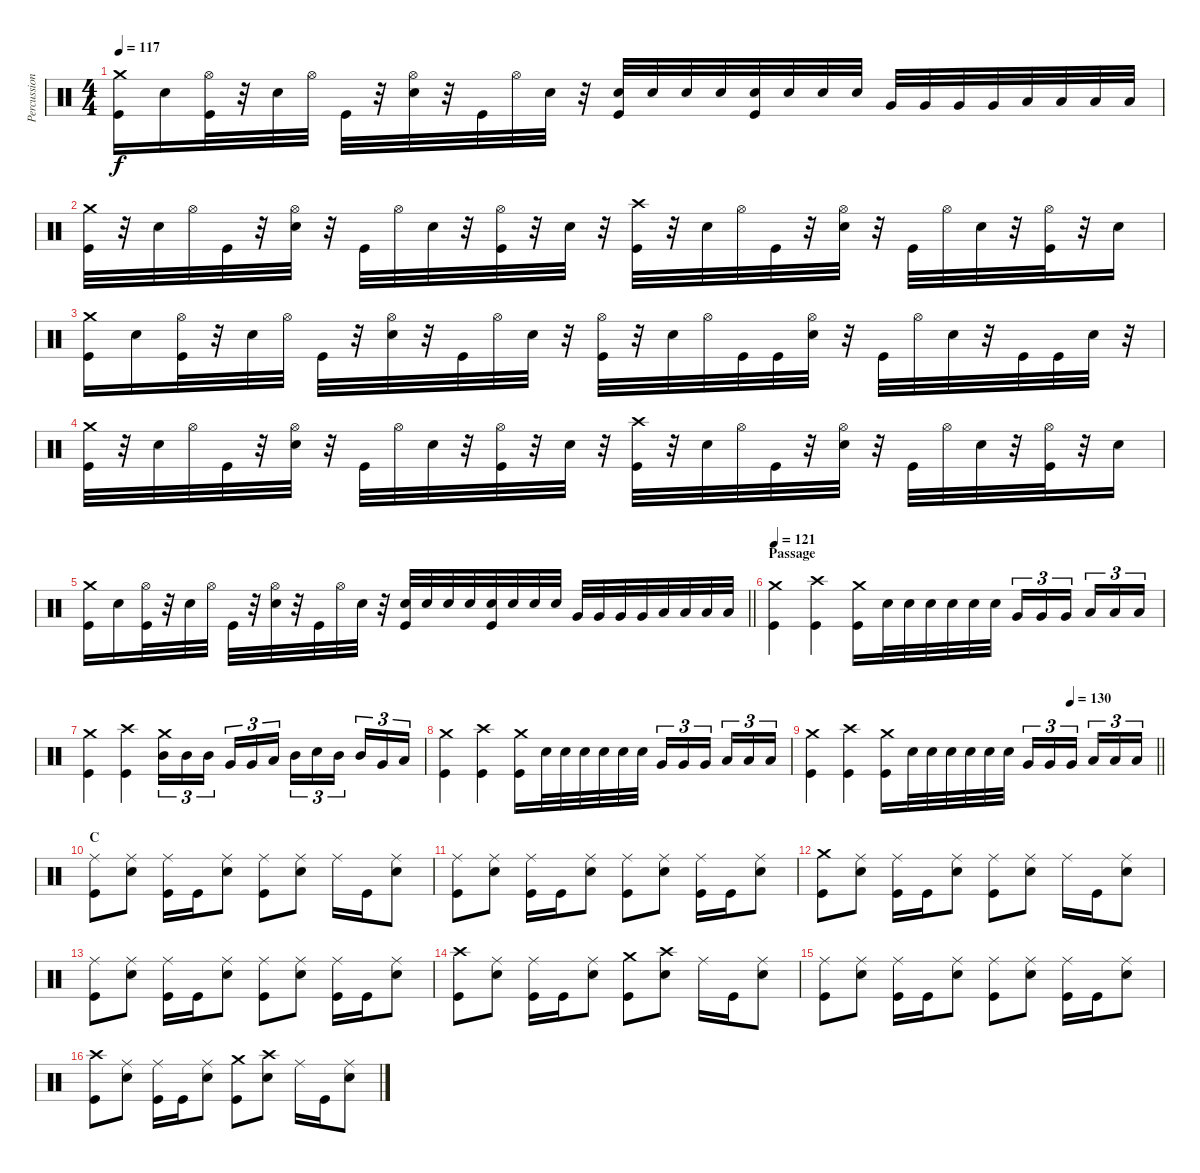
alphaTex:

\track ("Percussion" "Percussion") {instrument percussion}
\staff {score}
\articulation defaults
\ts (4 4)
\tempo 117
\clef neutral
\ks c
("Kick (hit)" "Crash medium (hit)").16{dy f} "Snare (hit) 2".16 ("Kick (hit)" "Hi-Hat (open)").32 r.32 "Snare (hit) 2".32 "Hi-Hat (open)".32 "Kick (hit)".32 r.32 ("Snare (hit) 2" "Hi-Hat (open)").32 r.32 "Kick (hit)".32 "Hi-Hat (open)".32 "Snare (hit) 2".32 r.32 ("Kick (hit)" "Snare (hit) 2").32 "Snare (hit) 2".32 "Snare (hit) 2".32 "Snare (hit) 2".32 ("Kick (hit)" "Snare (hit) 2").32 "Snare (hit) 2".32 "Snare (hit) 2".32 "Snare (hit) 2".32 "Very Low Tom (hit)".32 "Very Low Tom (hit)".32 "Very Low Tom (hit)".32 "Very Low Tom (hit)".32 "Low Floor Tom (hit)".32 "Low Floor Tom (hit)".32 "Low Floor Tom (hit)".32 "Low Floor Tom (hit)".32 |
("Kick (hit)" "Crash medium (hit)").32 r.32 "Snare (hit) 2".32 "Hi-Hat (open)".32 "Kick (hit)".32 r.32 ("Snare (hit) 2" "Hi-Hat (open)").32 r.32 "Kick (hit)".32 "Hi-Hat (open)".32 "Snare (hit) 2".32 r.32 ("Kick (hit)" "Hi-Hat (open)").32 r.32 "Snare (hit) 2".32 r.32 ("Kick (hit)" "Crash high (hit)").32 r.32 "Snare (hit) 2".32 "Hi-Hat (open)".32 "Kick (hit)".32 r.32 ("Snare (hit) 2" "Hi-Hat (open)").32 r.32 "Kick (hit)".32 "Hi-Hat (open)".32 "Snare (hit) 2".32 r.32 ("Kick (hit)" "Hi-Hat (open)").32 r.32 "Snare (hit) 2".16 |
("Kick (hit)" "Crash medium (hit)").16 "Snare (hit) 2".16 ("Kick (hit)" "Hi-Hat (open)").32 r.32 "Snare (hit) 2".32 "Hi-Hat (open)".32 "Kick (hit)".32 r.32 ("Snare (hit) 2" "Hi-Hat (open)").32 r.32 "Kick (hit)".32 "Hi-Hat (open)".32 "Snare (hit) 2".32 r.32 ("Kick (hit)" "Hi-Hat (open)").32 r.32 "Snare (hit) 2".32 "Hi-Hat (open)".32 "Kick (hit)".32 "Kick (hit)".32 ("Snare (hit) 2" "Hi-Hat (open)").32 r.32 "Kick (hit)".32 "Hi-Hat (open)".32 "Snare (hit) 2".32 r.32 "Kick (hit)".32 "Kick (hit)".32 "Snare (hit) 2".32 r.32 |
("Kick (hit)" "Crash medium (hit)").32 r.32 "Snare (hit) 2".32 "Hi-Hat (open)".32 "Kick (hit)".32 r.32 ("Snare (hit) 2" "Hi-Hat (open)").32 r.32 "Kick (hit)".32 "Hi-Hat (open)".32 "Snare (hit) 2".32 r.32 ("Kick (hit)" "Hi-Hat (open)").32 r.32 "Snare (hit) 2".32 r.32 ("Kick (hit)" "Crash high (hit)").32 r.32 "Snare (hit) 2".32 "Hi-Hat (open)".32 "Kick (hit)".32 r.32 ("Snare (hit) 2" "Hi-Hat (open)").32 r.32 "Kick (hit)".32 "Hi-Hat (open)".32 "Snare (hit) 2".32 r.32 ("Kick (hit)" "Hi-Hat (open)").32 r.32 "Snare (hit) 2".16 |
\barLineRight lightlight
("Kick (hit)" "Crash medium (hit)").16 "Snare (hit) 2".16 ("Kick (hit)" "Hi-Hat (open)").32 r.32 "Snare (hit) 2".32 "Hi-Hat (open)".32 "Kick (hit)".32 r.32 ("Snare (hit) 2" "Hi-Hat (open)").32 r.32 "Kick (hit)".32 "Hi-Hat (open)".32 "Snare (hit) 2".32 r.32 ("Kick (hit)" "Snare (hit) 2").32 "Snare (hit) 2".32 "Snare (hit) 2".32 "Snare (hit) 2".32 ("Kick (hit)" "Snare (hit) 2").32 "Snare (hit) 2".32 "Snare (hit) 2".32 "Snare (hit) 2".32 "Very Low Tom (hit)".32 "Very Low Tom (hit)".32 "Very Low Tom (hit)".32 "Very Low Tom (hit)".32 "Low Floor Tom (hit)".32 "Low Floor Tom (hit)".32 "Low Floor Tom (hit)".32 "Low Floor Tom (hit)".32 |
\section ("" "Passage")
\tempo 121
("Kick (hit)" "Crash medium (hit)").4 ("Kick (hit)" "Crash high (hit)").4 ("Kick (hit)" "Crash medium (hit)").16 "Snare (hit) 2".32 "Snare (hit) 2".32 "Snare (hit) 2".32 "Snare (hit) 2".32 "Snare (hit) 2".32 "Snare (hit) 2".32 "Very Low Tom (hit)".16{tu (3 2)} "Very Low Tom (hit)".16{tu (3 2)} "Very Low Tom (hit)".16{tu (3 2)} "Low Floor Tom (hit)".16{tu (3 2)} "Low Floor Tom (hit)".16{tu (3 2)} "Low Floor Tom (hit)".16{tu (3 2)} |
("Kick (hit)" "Crash medium (hit)").4 ("Kick (hit)" "Crash high (hit)").4 ("Mid Tom (hit)" "Crash medium (hit)").16{tu (3 2)} "Mid Tom (hit)".16{tu (3 2)} "Mid Tom (hit)".16{tu (3 2)} "Very Low Tom (hit)".16{tu (3 2)} "Very Low Tom (hit)".16{tu (3 2)} "Low Floor Tom (hit)".16{tu (3 2)} "Mid Tom (hit)".16{tu (3 2)} "Snare (hit) 2".16{tu (3 2)} "Mid Tom (hit)".16{tu (3 2)} "Mid Tom (hit)".16{tu (3 2)} "Very Low Tom (hit)".16{tu (3 2)} "Low Floor Tom (hit)".16{tu (3 2)} |
("Kick (hit)" "Crash medium (hit)").4 ("Kick (hit)" "Crash high (hit)").4 ("Kick (hit)" "Crash medium (hit)").16 "Snare (hit) 2".32 "Snare (hit) 2".32 "Snare (hit) 2".32 "Snare (hit) 2".32 "Snare (hit) 2".32 "Snare (hit) 2".32 "Very Low Tom (hit)".16{tu (3 2)} "Very Low Tom (hit)".16{tu (3 2)} "Very Low Tom (hit)".16{tu (3 2)} "Low Floor Tom (hit)".16{tu (3 2)} "Low Floor Tom (hit)".16{tu (3 2)} "Low Floor Tom (hit)".16{tu (3 2)} |
\tempo (130 0.75)
\barLineRight lightlight
("Kick (hit)" "Crash medium (hit)").4 ("Kick (hit)" "Crash high (hit)").4 ("Kick (hit)" "Crash medium (hit)").16 "Snare (hit) 2".32 "Snare (hit) 2".32 "Snare (hit) 2".32 "Snare (hit) 2".32 "Snare (hit) 2".32 "Snare (hit) 2".32 "Very Low Tom (hit)".16{tu (3 2)} "Very Low Tom (hit)".16{tu (3 2)} "Very Low Tom (hit)".16{tu (3 2)} "Low Floor Tom (hit)".16{tu (3 2)} "Low Floor Tom (hit)".16{tu (3 2)} "Low Floor Tom (hit)".16{tu (3 2)} |
\section ("" "C")
("Kick (hit)" "Ride (middle)").8 ("Snare (hit) 2" "Ride (middle)").8 ("Kick (hit)" "Ride (middle)").16 "Kick (hit)".16 ("Snare (hit) 2" "Ride (middle)").8 ("Kick (hit)" "Ride (middle)").8 ("Snare (hit) 2" "Ride (middle)").8 "Ride (middle)".16 "Kick (hit)".16 ("Snare (hit) 2" "Ride (middle)").8 |
("Kick (hit)" "Ride (middle)").8 ("Snare (hit) 2" "Ride (middle)").8 ("Kick (hit)" "Ride (middle)").16 "Kick (hit)".16 ("Snare (hit) 2" "Ride (middle)").8 ("Kick (hit)" "Ride (middle)").8 ("Snare (hit) 2" "Ride (middle)").8 ("Kick (hit)" "Ride (middle)").16 "Kick (hit)".16 ("Snare (hit) 2" "Ride (middle)").8 |
("Kick (hit)" "Crash medium (hit)").8 ("Snare (hit) 2" "Ride (middle)").8 ("Kick (hit)" "Ride (middle)").16 "Kick (hit)".16 ("Snare (hit) 2" "Ride (middle)").8 ("Kick (hit)" "Ride (middle)").8 ("Snare (hit) 2" "Ride (middle)").8 "Ride (middle)".16 "Kick (hit)".16 ("Snare (hit) 2" "Ride (middle)").8 |
("Kick (hit)" "Ride (middle)").8 ("Snare (hit) 2" "Ride (middle)").8 ("Kick (hit)" "Ride (middle)").16 "Kick (hit)".16 ("Snare (hit) 2" "Ride (middle)").8 ("Kick (hit)" "Ride (middle)").8 ("Snare (hit) 2" "Ride (middle)").8 ("Kick (hit)" "Ride (middle)").16 "Kick (hit)".16 ("Snare (hit) 2" "Ride (middle)").8 |
("Kick (hit)" "Crash high (hit)").8 ("Snare (hit) 2" "Ride (middle)").8 ("Kick (hit)" "Ride (middle)").16 "Kick (hit)".16 ("Snare (hit) 2" "Ride (middle)").8 ("Kick (hit)" "Crash medium (hit)").8 ("Snare (hit) 2" "Crash high (hit)").8 "Ride (middle)".16 "Kick (hit)".16 ("Snare (hit) 2" "Ride (middle)").8 |
("Kick (hit)" "Ride (middle)").8 ("Snare (hit) 2" "Ride (middle)").8 ("Kick (hit)" "Ride (middle)").16 "Kick (hit)".16 ("Snare (hit) 2" "Ride (middle)").8 ("Kick (hit)" "Ride (middle)").8 ("Snare (hit) 2" "Ride (middle)").8 ("Kick (hit)" "Ride (middle)").16 "Kick (hit)".16 ("Snare (hit) 2" "Ride (middle)").8 |
("Kick (hit)" "Crash high (hit)").8 ("Snare (hit) 2" "Ride (middle)").8 ("Kick (hit)" "Ride (middle)").16 "Kick (hit)".16 ("Snare (hit) 2" "Ride (middle)").8 ("Kick (hit)" "Crash medium (hit)").8 ("Snare (hit) 2" "Crash high (hit)").8 "Ride (middle)".16 "Kick (hit)".16 ("Snare (hit) 2" "Ride (middle)").8
